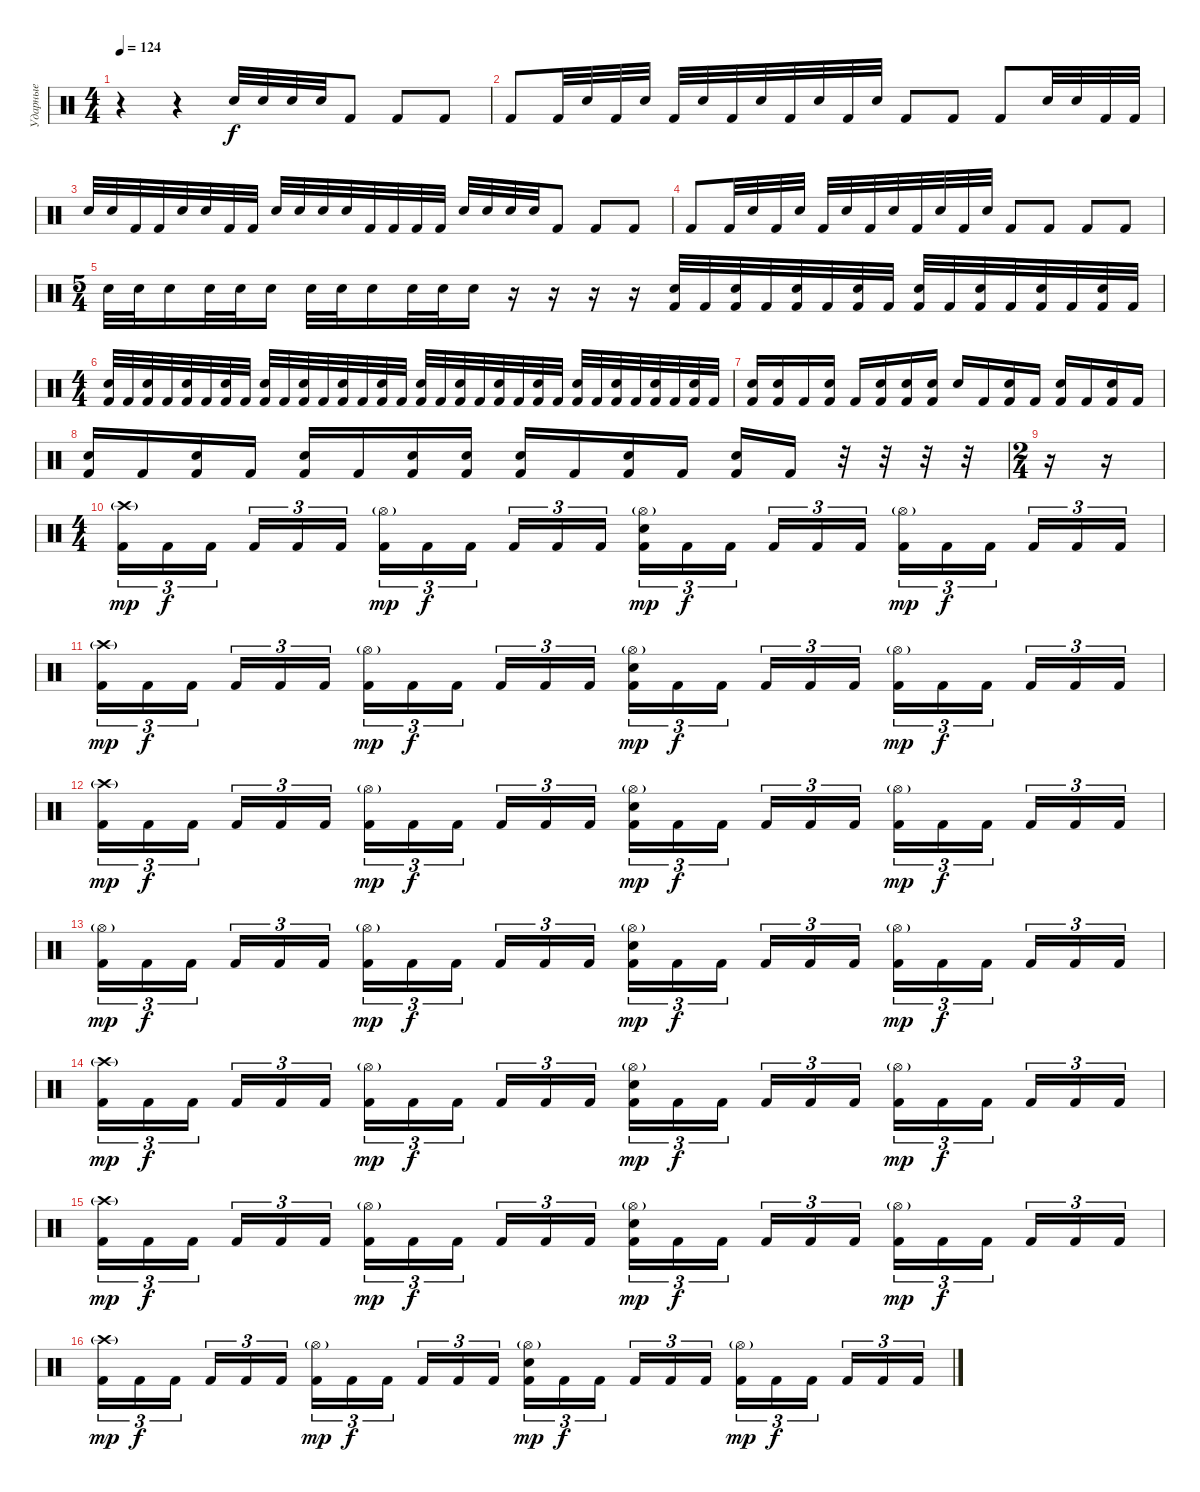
\track ("Ударные" "Ударные") {instrument percussion}
\staff {score}
\articulation defaults
\ts (4 4)
\tempo 124
\clef neutral
\ks c
r.4{dy f} r.4 "Electric Snare (hit)".32 "Electric Snare (hit)".32 "Electric Snare (hit)".32 "Electric Snare (hit)".32 "Kick (hit) 2".8 "Kick (hit) 2".8 "Kick (hit) 2".8 |
"Kick (hit) 2".8 "Kick (hit) 2".32 "Electric Snare (hit)".32 "Kick (hit) 2".32 "Electric Snare (hit)".32 "Kick (hit) 2".32 "Electric Snare (hit)".32 "Kick (hit) 2".32 "Electric Snare (hit)".32 "Kick (hit) 2".32 "Electric Snare (hit)".32 "Kick (hit) 2".32 "Electric Snare (hit)".32 "Kick (hit) 2".8 "Kick (hit) 2".8 "Kick (hit) 2".8 "Electric Snare (hit)".32 "Electric Snare (hit)".32 "Kick (hit) 2".32 "Kick (hit) 2".32 |
"Electric Snare (hit)".32 "Electric Snare (hit)".32 "Kick (hit) 2".32 "Kick (hit) 2".32 "Electric Snare (hit)".32 "Electric Snare (hit)".32 "Kick (hit) 2".32 "Kick (hit) 2".32 "Electric Snare (hit)".32 "Electric Snare (hit)".32 "Electric Snare (hit)".32 "Electric Snare (hit)".32 "Kick (hit) 2".32 "Kick (hit) 2".32 "Kick (hit) 2".32 "Kick (hit) 2".32 "Electric Snare (hit)".32 "Electric Snare (hit)".32 "Electric Snare (hit)".32 "Electric Snare (hit)".32 "Kick (hit) 2".8 "Kick (hit) 2".8 "Kick (hit) 2".8 |
"Kick (hit) 2".8 "Kick (hit) 2".32 "Electric Snare (hit)".32 "Kick (hit) 2".32 "Electric Snare (hit)".32 "Kick (hit) 2".32 "Electric Snare (hit)".32 "Kick (hit) 2".32 "Electric Snare (hit)".32 "Kick (hit) 2".32 "Electric Snare (hit)".32 "Kick (hit) 2".32 "Electric Snare (hit)".32 "Kick (hit) 2".8 "Kick (hit) 2".8 "Kick (hit) 2".8 "Kick (hit) 2".8 |
\ts (5 4)
"Electric Snare (hit)".32 "Electric Snare (hit)".32 "Electric Snare (hit)".16 "Electric Snare (hit)".32 "Electric Snare (hit)".32 "Electric Snare (hit)".16 "Electric Snare (hit)".32 "Electric Snare (hit)".32 "Electric Snare (hit)".16 "Electric Snare (hit)".32 "Electric Snare (hit)".32 "Electric Snare (hit)".16 r.16 r.16 r.16 r.16 ("Electric Snare (hit)" "Kick (hit) 2").32 "Kick (hit) 2".32 ("Electric Snare (hit)" "Kick (hit) 2").32 "Kick (hit) 2".32 ("Electric Snare (hit)" "Kick (hit) 2").32 "Kick (hit) 2".32 ("Electric Snare (hit)" "Kick (hit) 2").32 "Kick (hit) 2".32 ("Electric Snare (hit)" "Kick (hit) 2").32 "Kick (hit) 2".32 ("Electric Snare (hit)" "Kick (hit) 2").32 "Kick (hit) 2".32 ("Electric Snare (hit)" "Kick (hit) 2").32 "Kick (hit) 2".32 ("Electric Snare (hit)" "Kick (hit) 2").32 "Kick (hit) 2".32 |
\ts (4 4)
("Electric Snare (hit)" "Kick (hit) 2").32 "Kick (hit) 2".32 ("Electric Snare (hit)" "Kick (hit) 2").32 "Kick (hit) 2".32 ("Electric Snare (hit)" "Kick (hit) 2").32 "Kick (hit) 2".32 ("Electric Snare (hit)" "Kick (hit) 2").32 "Kick (hit) 2".32 ("Electric Snare (hit)" "Kick (hit) 2").32 "Kick (hit) 2".32 ("Electric Snare (hit)" "Kick (hit) 2").32 "Kick (hit) 2".32 ("Electric Snare (hit)" "Kick (hit) 2").32 "Kick (hit) 2".32 ("Electric Snare (hit)" "Kick (hit) 2").32 "Kick (hit) 2".32 ("Electric Snare (hit)" "Kick (hit) 2").32 "Kick (hit) 2".32 ("Electric Snare (hit)" "Kick (hit) 2").32 "Kick (hit) 2".32 ("Electric Snare (hit)" "Kick (hit) 2").32 "Kick (hit) 2".32 ("Electric Snare (hit)" "Kick (hit) 2").32 "Kick (hit) 2".32 ("Electric Snare (hit)" "Kick (hit) 2").32 "Kick (hit) 2".32 ("Electric Snare (hit)" "Kick (hit) 2").32 "Kick (hit) 2".32 ("Electric Snare (hit)" "Kick (hit) 2").32 "Kick (hit) 2".32 ("Electric Snare (hit)" "Kick (hit) 2").32 "Kick (hit) 2".32 |
("Electric Snare (hit)" "Kick (hit) 2").16 ("Electric Snare (hit)" "Kick (hit) 2").16 "Kick (hit) 2".16 ("Electric Snare (hit)" "Kick (hit) 2").16 "Kick (hit) 2".16 ("Electric Snare (hit)" "Kick (hit) 2").16 ("Electric Snare (hit)" "Kick (hit) 2").16 ("Electric Snare (hit)" "Kick (hit) 2").16 "Electric Snare (hit)".16 "Kick (hit) 2".16 ("Electric Snare (hit)" "Kick (hit) 2").16 "Kick (hit) 2".16 ("Electric Snare (hit)" "Kick (hit) 2").16 "Kick (hit) 2".16 ("Electric Snare (hit)" "Kick (hit) 2").16 "Kick (hit) 2".16 |
("Electric Snare (hit)" "Kick (hit) 2").16 "Kick (hit) 2".16 ("Electric Snare (hit)" "Kick (hit) 2").16 "Kick (hit) 2".16 ("Electric Snare (hit)" "Kick (hit) 2").16 "Kick (hit) 2".16 ("Electric Snare (hit)" "Kick (hit) 2").16 ("Electric Snare (hit)" "Kick (hit) 2").16 ("Electric Snare (hit)" "Kick (hit) 2").16 "Kick (hit) 2".16 ("Electric Snare (hit)" "Kick (hit) 2").16 "Kick (hit) 2".16 ("Electric Snare (hit)" "Kick (hit) 2").16 "Kick (hit) 2".16 r.32 r.32 r.32 r.32 |
\ts (2 4)
r.16 r.16 |
\ts (4 4)
("Crash high (hit)"{g} "Kick (hit) 2").16{tu (3 2) dy mp} "Kick (hit) 2".16{tu (3 2) dy f} "Kick (hit) 2".16{tu (3 2)} "Kick (hit) 2".16{tu (3 2)} "Kick (hit) 2".16{tu (3 2)} "Kick (hit) 2".16{tu (3 2)} ("Hi-Hat (open)"{g} "Kick (hit) 2").16{tu (3 2) dy mp} "Kick (hit) 2".16{tu (3 2) dy f} "Kick (hit) 2".16{tu (3 2)} "Kick (hit) 2".16{tu (3 2)} "Kick (hit) 2".16{tu (3 2)} "Kick (hit) 2".16{tu (3 2)} ("Hi-Hat (open)"{g} "Electric Snare (hit)" "Kick (hit) 2").16{tu (3 2) dy mp} "Kick (hit) 2".16{tu (3 2) dy f} "Kick (hit) 2".16{tu (3 2)} "Kick (hit) 2".16{tu (3 2)} "Kick (hit) 2".16{tu (3 2)} "Kick (hit) 2".16{tu (3 2)} ("Hi-Hat (open)"{g} "Kick (hit) 2").16{tu (3 2) dy mp} "Kick (hit) 2".16{tu (3 2) dy f} "Kick (hit) 2".16{tu (3 2)} "Kick (hit) 2".16{tu (3 2)} "Kick (hit) 2".16{tu (3 2)} "Kick (hit) 2".16{tu (3 2)} |
("Crash high (hit)"{g} "Kick (hit) 2").16{tu (3 2) dy mp} "Kick (hit) 2".16{tu (3 2) dy f} "Kick (hit) 2".16{tu (3 2)} "Kick (hit) 2".16{tu (3 2)} "Kick (hit) 2".16{tu (3 2)} "Kick (hit) 2".16{tu (3 2)} ("Hi-Hat (open)"{g} "Kick (hit) 2").16{tu (3 2) dy mp} "Kick (hit) 2".16{tu (3 2) dy f} "Kick (hit) 2".16{tu (3 2)} "Kick (hit) 2".16{tu (3 2)} "Kick (hit) 2".16{tu (3 2)} "Kick (hit) 2".16{tu (3 2)} ("Hi-Hat (open)"{g} "Electric Snare (hit)" "Kick (hit) 2").16{tu (3 2) dy mp} "Kick (hit) 2".16{tu (3 2) dy f} "Kick (hit) 2".16{tu (3 2)} "Kick (hit) 2".16{tu (3 2)} "Kick (hit) 2".16{tu (3 2)} "Kick (hit) 2".16{tu (3 2)} ("Hi-Hat (open)"{g} "Kick (hit) 2").16{tu (3 2) dy mp} "Kick (hit) 2".16{tu (3 2) dy f} "Kick (hit) 2".16{tu (3 2)} "Kick (hit) 2".16{tu (3 2)} "Kick (hit) 2".16{tu (3 2)} "Kick (hit) 2".16{tu (3 2)} |
("Crash high (hit)"{g} "Kick (hit) 2").16{tu (3 2) dy mp} "Kick (hit) 2".16{tu (3 2) dy f} "Kick (hit) 2".16{tu (3 2)} "Kick (hit) 2".16{tu (3 2)} "Kick (hit) 2".16{tu (3 2)} "Kick (hit) 2".16{tu (3 2)} ("Hi-Hat (open)"{g} "Kick (hit) 2").16{tu (3 2) dy mp} "Kick (hit) 2".16{tu (3 2) dy f} "Kick (hit) 2".16{tu (3 2)} "Kick (hit) 2".16{tu (3 2)} "Kick (hit) 2".16{tu (3 2)} "Kick (hit) 2".16{tu (3 2)} ("Hi-Hat (open)"{g} "Electric Snare (hit)" "Kick (hit) 2").16{tu (3 2) dy mp} "Kick (hit) 2".16{tu (3 2) dy f} "Kick (hit) 2".16{tu (3 2)} "Kick (hit) 2".16{tu (3 2)} "Kick (hit) 2".16{tu (3 2)} "Kick (hit) 2".16{tu (3 2)} ("Hi-Hat (open)"{g} "Kick (hit) 2").16{tu (3 2) dy mp} "Kick (hit) 2".16{tu (3 2) dy f} "Kick (hit) 2".16{tu (3 2)} "Kick (hit) 2".16{tu (3 2)} "Kick (hit) 2".16{tu (3 2)} "Kick (hit) 2".16{tu (3 2)} |
("Hi-Hat (open)"{g} "Kick (hit) 2").16{tu (3 2) dy mp} "Kick (hit) 2".16{tu (3 2) dy f} "Kick (hit) 2".16{tu (3 2)} "Kick (hit) 2".16{tu (3 2)} "Kick (hit) 2".16{tu (3 2)} "Kick (hit) 2".16{tu (3 2)} ("Hi-Hat (open)"{g} "Kick (hit) 2").16{tu (3 2) dy mp} "Kick (hit) 2".16{tu (3 2) dy f} "Kick (hit) 2".16{tu (3 2)} "Kick (hit) 2".16{tu (3 2)} "Kick (hit) 2".16{tu (3 2)} "Kick (hit) 2".16{tu (3 2)} ("Hi-Hat (open)"{g} "Electric Snare (hit)" "Kick (hit) 2").16{tu (3 2) dy mp} "Kick (hit) 2".16{tu (3 2) dy f} "Kick (hit) 2".16{tu (3 2)} "Kick (hit) 2".16{tu (3 2)} "Kick (hit) 2".16{tu (3 2)} "Kick (hit) 2".16{tu (3 2)} ("Hi-Hat (open)"{g} "Kick (hit) 2").16{tu (3 2) dy mp} "Kick (hit) 2".16{tu (3 2) dy f} "Kick (hit) 2".16{tu (3 2)} "Kick (hit) 2".16{tu (3 2)} "Kick (hit) 2".16{tu (3 2)} "Kick (hit) 2".16{tu (3 2)} |
("Crash high (hit)"{g} "Kick (hit) 2").16{tu (3 2) dy mp} "Kick (hit) 2".16{tu (3 2) dy f} "Kick (hit) 2".16{tu (3 2)} "Kick (hit) 2".16{tu (3 2)} "Kick (hit) 2".16{tu (3 2)} "Kick (hit) 2".16{tu (3 2)} ("Hi-Hat (open)"{g} "Kick (hit) 2").16{tu (3 2) dy mp} "Kick (hit) 2".16{tu (3 2) dy f} "Kick (hit) 2".16{tu (3 2)} "Kick (hit) 2".16{tu (3 2)} "Kick (hit) 2".16{tu (3 2)} "Kick (hit) 2".16{tu (3 2)} ("Hi-Hat (open)"{g} "Electric Snare (hit)" "Kick (hit) 2").16{tu (3 2) dy mp} "Kick (hit) 2".16{tu (3 2) dy f} "Kick (hit) 2".16{tu (3 2)} "Kick (hit) 2".16{tu (3 2)} "Kick (hit) 2".16{tu (3 2)} "Kick (hit) 2".16{tu (3 2)} ("Hi-Hat (open)"{g} "Kick (hit) 2").16{tu (3 2) dy mp} "Kick (hit) 2".16{tu (3 2) dy f} "Kick (hit) 2".16{tu (3 2)} "Kick (hit) 2".16{tu (3 2)} "Kick (hit) 2".16{tu (3 2)} "Kick (hit) 2".16{tu (3 2)} |
("Crash high (hit)"{g} "Kick (hit) 2").16{tu (3 2) dy mp} "Kick (hit) 2".16{tu (3 2) dy f} "Kick (hit) 2".16{tu (3 2)} "Kick (hit) 2".16{tu (3 2)} "Kick (hit) 2".16{tu (3 2)} "Kick (hit) 2".16{tu (3 2)} ("Hi-Hat (open)"{g} "Kick (hit) 2").16{tu (3 2) dy mp} "Kick (hit) 2".16{tu (3 2) dy f} "Kick (hit) 2".16{tu (3 2)} "Kick (hit) 2".16{tu (3 2)} "Kick (hit) 2".16{tu (3 2)} "Kick (hit) 2".16{tu (3 2)} ("Hi-Hat (open)"{g} "Electric Snare (hit)" "Kick (hit) 2").16{tu (3 2) dy mp} "Kick (hit) 2".16{tu (3 2) dy f} "Kick (hit) 2".16{tu (3 2)} "Kick (hit) 2".16{tu (3 2)} "Kick (hit) 2".16{tu (3 2)} "Kick (hit) 2".16{tu (3 2)} ("Hi-Hat (open)"{g} "Kick (hit) 2").16{tu (3 2) dy mp} "Kick (hit) 2".16{tu (3 2) dy f} "Kick (hit) 2".16{tu (3 2)} "Kick (hit) 2".16{tu (3 2)} "Kick (hit) 2".16{tu (3 2)} "Kick (hit) 2".16{tu (3 2)} |
("Crash high (hit)"{g} "Kick (hit) 2").16{tu (3 2) dy mp} "Kick (hit) 2".16{tu (3 2) dy f} "Kick (hit) 2".16{tu (3 2)} "Kick (hit) 2".16{tu (3 2)} "Kick (hit) 2".16{tu (3 2)} "Kick (hit) 2".16{tu (3 2)} ("Hi-Hat (open)"{g} "Kick (hit) 2").16{tu (3 2) dy mp} "Kick (hit) 2".16{tu (3 2) dy f} "Kick (hit) 2".16{tu (3 2)} "Kick (hit) 2".16{tu (3 2)} "Kick (hit) 2".16{tu (3 2)} "Kick (hit) 2".16{tu (3 2)} ("Hi-Hat (open)"{g} "Electric Snare (hit)" "Kick (hit) 2").16{tu (3 2) dy mp} "Kick (hit) 2".16{tu (3 2) dy f} "Kick (hit) 2".16{tu (3 2)} "Kick (hit) 2".16{tu (3 2)} "Kick (hit) 2".16{tu (3 2)} "Kick (hit) 2".16{tu (3 2)} ("Hi-Hat (open)"{g} "Kick (hit) 2").16{tu (3 2) dy mp} "Kick (hit) 2".16{tu (3 2) dy f} "Kick (hit) 2".16{tu (3 2)} "Kick (hit) 2".16{tu (3 2)} "Kick (hit) 2".16{tu (3 2)} "Kick (hit) 2".16{tu (3 2)}
